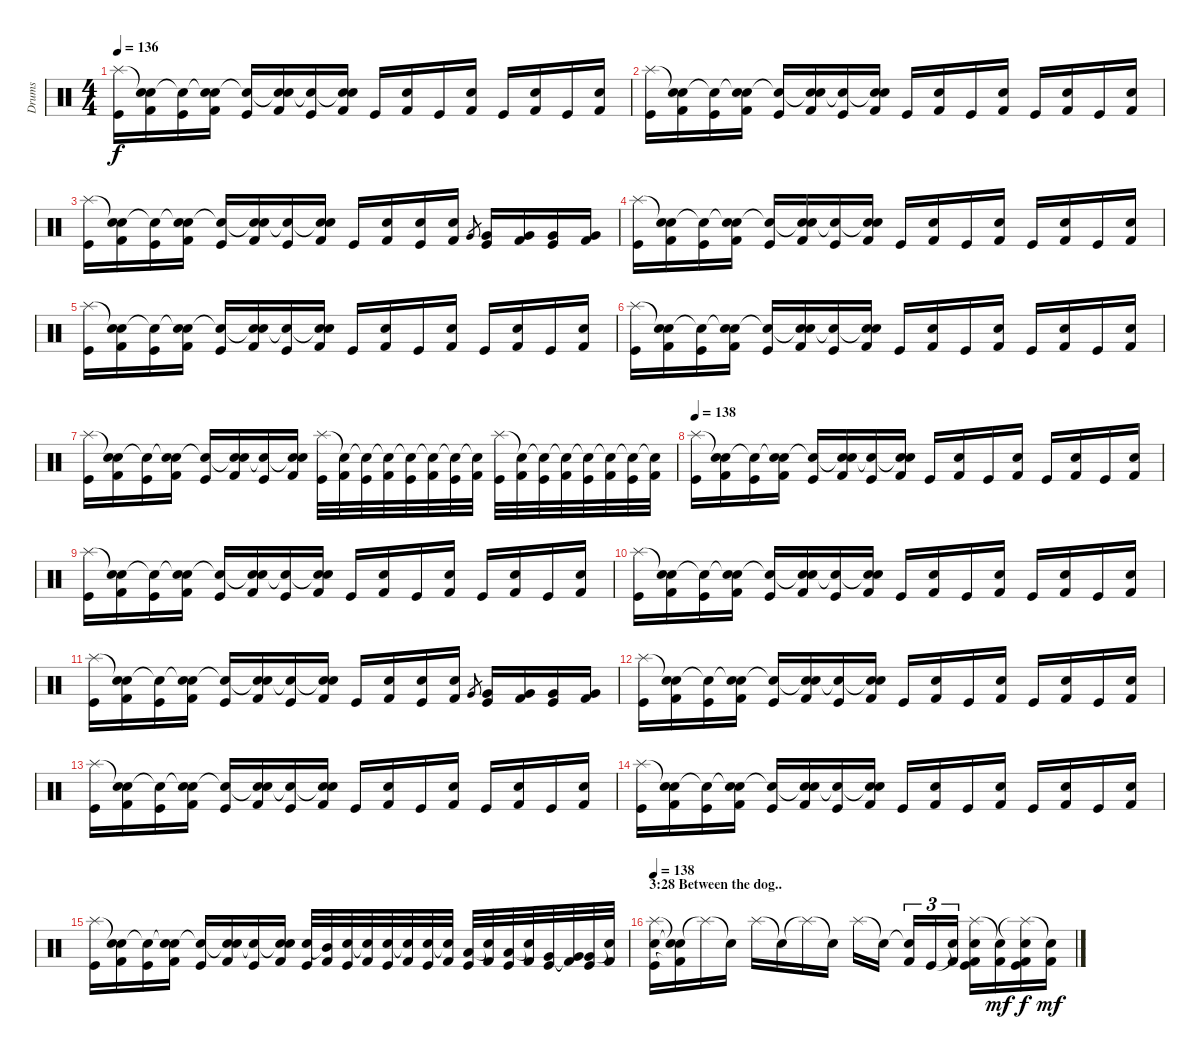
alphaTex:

\track ("Drums" "Drums") {instrument percussion}
\staff {score}
\articulation defaults
\ts (4 4)
\tempo 136
\clef neutral
\ks c
("Splash (hit)" "Kick (hit)").16{dy f} ("Snare (hit)"{t} "Snare (hit) 2" "Kick (hit) 2").16 ("Snare (hit)"{t} "Kick (hit)").16 ("Snare (hit)"{t} "Snare (hit) 2" "Kick (hit) 2").16 ("Snare (hit)"{t} "Kick (hit)").16 ("Snare (hit)"{t} "Snare (hit) 2" "Kick (hit) 2").16 ("Snare (hit)"{t} "Kick (hit)").16 ("Snare (hit)"{t} "Snare (hit) 2" "Kick (hit) 2").16 "Kick (hit)".16 ("Snare (hit) 2" "Kick (hit) 2").16 "Kick (hit)".16 ("Snare (hit) 2" "Kick (hit) 2").16 "Kick (hit)".16 ("Snare (hit) 2" "Kick (hit) 2").16 "Kick (hit)".16 ("Snare (hit) 2" "Kick (hit) 2").16 |
("Splash (hit)" "Kick (hit)").16 ("Snare (hit)"{t} "Snare (hit) 2" "Kick (hit) 2").16 ("Snare (hit)"{t} "Kick (hit)").16 ("Snare (hit)"{t} "Snare (hit) 2" "Kick (hit) 2").16 ("Snare (hit)"{t} "Kick (hit)").16 ("Snare (hit)"{t} "Snare (hit) 2" "Kick (hit) 2").16 ("Snare (hit)"{t} "Kick (hit)").16 ("Snare (hit)"{t} "Snare (hit) 2" "Kick (hit) 2").16 "Kick (hit)".16 ("Snare (hit) 2" "Kick (hit) 2").16 "Kick (hit)".16 ("Snare (hit) 2" "Kick (hit) 2").16 "Kick (hit)".16 ("Snare (hit) 2" "Kick (hit) 2").16 "Kick (hit)".16 ("Snare (hit) 2" "Kick (hit) 2").16 |
("Splash (hit)" "Kick (hit)").16 ("Snare (hit)"{t} "Snare (hit) 2" "Kick (hit) 2").16 ("Snare (hit)"{t} "Kick (hit)").16 ("Snare (hit)"{t} "Snare (hit) 2" "Kick (hit) 2").16 ("Snare (hit)"{t} "Kick (hit)").16 ("Snare (hit)"{t} "Snare (hit) 2" "Kick (hit) 2").16 ("Snare (hit)"{t} "Kick (hit)").16 ("Snare (hit)"{t} "Snare (hit) 2" "Kick (hit) 2").16 "Kick (hit)".16 ("Snare (hit) 2" "Kick (hit) 2").16 ("Snare (hit) 2" "Kick (hit)").16 ("Snare (hit) 2" "Kick (hit) 2").16 "Very Low Tom (hit)".8{gr} ("Very Low Tom (hit)" "Kick (hit)").16 ("Very Low Tom (hit)" "Kick (hit) 2").16 ("Very Low Tom (hit)" "Kick (hit)").16 ("Very Low Tom (hit)" "Kick (hit) 2").16 |
("Splash (hit)" "Kick (hit)").16 ("Snare (hit)"{t} "Snare (hit) 2" "Kick (hit) 2").16 ("Snare (hit)"{t} "Kick (hit)").16 ("Snare (hit)"{t} "Snare (hit) 2" "Kick (hit) 2").16 ("Snare (hit)"{t} "Kick (hit)").16 ("Snare (hit)"{t} "Snare (hit) 2" "Kick (hit) 2").16 ("Snare (hit)"{t} "Kick (hit)").16 ("Snare (hit)"{t} "Snare (hit) 2" "Kick (hit) 2").16 "Kick (hit)".16 ("Snare (hit) 2" "Kick (hit) 2").16 "Kick (hit)".16 ("Snare (hit) 2" "Kick (hit) 2").16 "Kick (hit)".16 ("Snare (hit) 2" "Kick (hit) 2").16 "Kick (hit)".16 ("Snare (hit) 2" "Kick (hit) 2").16 |
("Splash (hit)" "Kick (hit)").16 ("Snare (hit)"{t} "Snare (hit) 2" "Kick (hit) 2").16 ("Snare (hit)"{t} "Kick (hit)").16 ("Snare (hit)"{t} "Snare (hit) 2" "Kick (hit) 2").16 ("Snare (hit)"{t} "Kick (hit)").16 ("Snare (hit)"{t} "Snare (hit) 2" "Kick (hit) 2").16 ("Snare (hit)"{t} "Kick (hit)").16 ("Snare (hit)"{t} "Snare (hit) 2" "Kick (hit) 2").16 "Kick (hit)".16 ("Snare (hit) 2" "Kick (hit) 2").16 "Kick (hit)".16 ("Snare (hit) 2" "Kick (hit) 2").16 "Kick (hit)".16 ("Snare (hit) 2" "Kick (hit) 2").16 "Kick (hit)".16 ("Snare (hit) 2" "Kick (hit) 2").16 |
("Splash (hit)" "Kick (hit)").16 ("Snare (hit)"{t} "Snare (hit) 2" "Kick (hit) 2").16 ("Snare (hit)"{t} "Kick (hit)").16 ("Snare (hit)"{t} "Snare (hit) 2" "Kick (hit) 2").16 ("Snare (hit)"{t} "Kick (hit)").16 ("Snare (hit)"{t} "Snare (hit) 2" "Kick (hit) 2").16 ("Snare (hit)"{t} "Kick (hit)").16 ("Snare (hit)"{t} "Snare (hit) 2" "Kick (hit) 2").16 "Kick (hit)".16 ("Snare (hit) 2" "Kick (hit) 2").16 "Kick (hit)".16 ("Snare (hit) 2" "Kick (hit) 2").16 "Kick (hit)".16 ("Snare (hit) 2" "Kick (hit) 2").16 "Kick (hit)".16 ("Snare (hit) 2" "Kick (hit) 2").16 |
("Splash (hit)" "Kick (hit)").16 ("Snare (hit)"{t} "Snare (hit) 2" "Kick (hit) 2").16 ("Snare (hit)"{t} "Kick (hit)").16 ("Snare (hit)"{t} "Snare (hit) 2" "Kick (hit) 2").16 ("Snare (hit)"{t} "Kick (hit)").16 ("Snare (hit)"{t} "Snare (hit) 2" "Kick (hit) 2").16 ("Snare (hit)"{t} "Kick (hit)").16 ("Snare (hit)"{t} "Snare (hit) 2" "Kick (hit) 2").16 ("Splash (hit)" "Kick (hit)").32 ("Snare (hit)"{t} "Kick (hit) 2").32 ("Snare (hit)"{t} "Kick (hit)").32 ("Snare (hit)"{t} "Kick (hit) 2").32 ("Snare (hit)"{t} "Kick (hit)").32 ("Snare (hit)"{t} "Kick (hit) 2").32 ("Snare (hit)"{t} "Kick (hit)").32 ("Snare (hit)"{t} "Kick (hit) 2").32 ("Splash (hit)" "Kick (hit)").32 ("Snare (hit)"{t} "Kick (hit) 2").32 ("Snare (hit)"{t} "Kick (hit)").32 ("Snare (hit)"{t} "Kick (hit) 2").32 ("Snare (hit)"{t} "Kick (hit)").32 ("Snare (hit)"{t} "Kick (hit) 2").32 ("Snare (hit)"{t} "Kick (hit)").32 ("Snare (hit)"{t} "Kick (hit) 2").32 |
\tempo 138
("Splash (hit)" "Kick (hit)").16 ("Snare (hit)"{t} "Snare (hit) 2" "Kick (hit) 2").16 ("Snare (hit)"{t} "Kick (hit)").16 ("Snare (hit)"{t} "Snare (hit) 2" "Kick (hit) 2").16 ("Snare (hit)"{t} "Kick (hit)").16 ("Snare (hit)"{t} "Snare (hit) 2" "Kick (hit) 2").16 ("Snare (hit)"{t} "Kick (hit)").16 ("Snare (hit)"{t} "Snare (hit) 2" "Kick (hit) 2").16 "Kick (hit)".16 ("Snare (hit) 2" "Kick (hit) 2").16 "Kick (hit)".16 ("Snare (hit) 2" "Kick (hit) 2").16 "Kick (hit)".16 ("Snare (hit) 2" "Kick (hit) 2").16 "Kick (hit)".16 ("Snare (hit) 2" "Kick (hit) 2").16 |
("Splash (hit)" "Kick (hit)").16 ("Snare (hit)"{t} "Snare (hit) 2" "Kick (hit) 2").16 ("Snare (hit)"{t} "Kick (hit)").16 ("Snare (hit)"{t} "Snare (hit) 2" "Kick (hit) 2").16 ("Snare (hit)"{t} "Kick (hit)").16 ("Snare (hit)"{t} "Snare (hit) 2" "Kick (hit) 2").16 ("Snare (hit)"{t} "Kick (hit)").16 ("Snare (hit)"{t} "Snare (hit) 2" "Kick (hit) 2").16 "Kick (hit)".16 ("Snare (hit) 2" "Kick (hit) 2").16 "Kick (hit)".16 ("Snare (hit) 2" "Kick (hit) 2").16 "Kick (hit)".16 ("Snare (hit) 2" "Kick (hit) 2").16 "Kick (hit)".16 ("Snare (hit) 2" "Kick (hit) 2").16 |
("Splash (hit)" "Kick (hit)").16 ("Snare (hit)"{t} "Snare (hit) 2" "Kick (hit) 2").16 ("Snare (hit)"{t} "Kick (hit)").16 ("Snare (hit)"{t} "Snare (hit) 2" "Kick (hit) 2").16 ("Snare (hit)"{t} "Kick (hit)").16 ("Snare (hit)"{t} "Snare (hit) 2" "Kick (hit) 2").16 ("Snare (hit)"{t} "Kick (hit)").16 ("Snare (hit)"{t} "Snare (hit) 2" "Kick (hit) 2").16 "Kick (hit)".16 ("Snare (hit) 2" "Kick (hit) 2").16 "Kick (hit)".16 ("Snare (hit) 2" "Kick (hit) 2").16 "Kick (hit)".16 ("Snare (hit) 2" "Kick (hit) 2").16 "Kick (hit)".16 ("Snare (hit) 2" "Kick (hit) 2").16 |
("Splash (hit)" "Kick (hit)").16 ("Snare (hit)"{t} "Snare (hit) 2" "Kick (hit) 2").16 ("Snare (hit)"{t} "Kick (hit)").16 ("Snare (hit)"{t} "Snare (hit) 2" "Kick (hit) 2").16 ("Snare (hit)"{t} "Kick (hit)").16 ("Snare (hit)"{t} "Snare (hit) 2" "Kick (hit) 2").16 ("Snare (hit)"{t} "Kick (hit)").16 ("Snare (hit)"{t} "Snare (hit) 2" "Kick (hit) 2").16 "Kick (hit)".16 ("Snare (hit) 2" "Kick (hit) 2").16 ("Snare (hit) 2" "Kick (hit)").16 ("Snare (hit) 2" "Kick (hit) 2").16 "Very Low Tom (hit)".8{gr} ("Very Low Tom (hit)" "Kick (hit)").16 ("Very Low Tom (hit)" "Kick (hit) 2").16 ("Very Low Tom (hit)" "Kick (hit)").16 ("Very Low Tom (hit)" "Kick (hit) 2").16 |
("Splash (hit)" "Kick (hit)").16 ("Snare (hit)"{t} "Snare (hit) 2" "Kick (hit) 2").16 ("Snare (hit)"{t} "Kick (hit)").16 ("Snare (hit)"{t} "Snare (hit) 2" "Kick (hit) 2").16 ("Snare (hit)"{t} "Kick (hit)").16 ("Snare (hit)"{t} "Snare (hit) 2" "Kick (hit) 2").16 ("Snare (hit)"{t} "Kick (hit)").16 ("Snare (hit)"{t} "Snare (hit) 2" "Kick (hit) 2").16 "Kick (hit)".16 ("Snare (hit) 2" "Kick (hit) 2").16 "Kick (hit)".16 ("Snare (hit) 2" "Kick (hit) 2").16 "Kick (hit)".16 ("Snare (hit) 2" "Kick (hit) 2").16 "Kick (hit)".16 ("Snare (hit) 2" "Kick (hit) 2").16 |
("Splash (hit)" "Kick (hit)").16 ("Snare (hit)"{t} "Snare (hit) 2" "Kick (hit) 2").16 ("Snare (hit)"{t} "Kick (hit)").16 ("Snare (hit)"{t} "Snare (hit) 2" "Kick (hit) 2").16 ("Snare (hit)"{t} "Kick (hit)").16 ("Snare (hit)"{t} "Snare (hit) 2" "Kick (hit) 2").16 ("Snare (hit)"{t} "Kick (hit)").16 ("Snare (hit)"{t} "Snare (hit) 2" "Kick (hit) 2").16 "Kick (hit)".16 ("Snare (hit) 2" "Kick (hit) 2").16 "Kick (hit)".16 ("Snare (hit) 2" "Kick (hit) 2").16 "Kick (hit)".16 ("Snare (hit) 2" "Kick (hit) 2").16 "Kick (hit)".16 ("Snare (hit) 2" "Kick (hit) 2").16 |
("Splash (hit)" "Kick (hit)").16 ("Snare (hit)"{t} "Snare (hit) 2" "Kick (hit) 2").16 ("Snare (hit)"{t} "Kick (hit)").16 ("Snare (hit)"{t} "Snare (hit) 2" "Kick (hit) 2").16 ("Snare (hit)"{t} "Kick (hit)").16 ("Snare (hit)"{t} "Snare (hit) 2" "Kick (hit) 2").16 ("Snare (hit)"{t} "Kick (hit)").16 ("Snare (hit)"{t} "Snare (hit) 2" "Kick (hit) 2").16 "Kick (hit)".16 ("Snare (hit) 2" "Kick (hit) 2").16 "Kick (hit)".16 ("Snare (hit) 2" "Kick (hit) 2").16 "Kick (hit)".16 ("Snare (hit) 2" "Kick (hit) 2").16 "Kick (hit)".16 ("Snare (hit) 2" "Kick (hit) 2").16 |
("Splash (hit)" "Kick (hit)").16 ("Snare (hit)"{t} "Snare (hit) 2" "Kick (hit) 2").16 ("Snare (hit)"{t} "Kick (hit)").16 ("Snare (hit)"{t} "Snare (hit) 2" "Kick (hit) 2").16 ("Snare (hit)"{t} "Kick (hit)").16 ("Snare (hit)"{t} "Snare (hit) 2" "Kick (hit) 2").16 ("Snare (hit)"{t} "Kick (hit)").16 ("Snare (hit)"{t} "Snare (hit) 2" "Kick (hit) 2").16 ("Snare (hit) 2" "Kick (hit)").32 ("Mid Tom (hit)"{t} "Kick (hit) 2").32 ("Snare (hit) 2" "Kick (hit)").32 ("Snare (hit)"{t} "Kick (hit) 2").32 ("Snare (hit) 2" "Kick (hit)").32 ("Snare (hit)"{t} "Kick (hit) 2").32 ("Snare (hit) 2" "Kick (hit)").32 ("Snare (hit)"{t} "Kick (hit) 2").32 ("Low Tom (hit)" "Kick (hit)").32 ("Snare (hit)"{t} "Kick (hit) 2").32 ("Low Tom (hit)" "Kick (hit)").32 ("Snare (hit)"{t} "Kick (hit) 2").32 ("Very Low Tom (hit)" "Kick (hit)").32 ("Very Low Tom (hit)"{t} "Kick (hit) 2").32 ("Very Low Tom (hit)" "Kick (hit)").32 ("Snare (hit)"{t} "Kick (hit) 2").32 |
\section ("" "3:28 Between the dog..")
\tempo 138
("Splash (hit)" "Snare (hit) 2" "Kick (hit)").16 ("Snare (hit)"{t} "Snare (hit)"{t} "Kick (hit) 2"{t}).16 "Splash (hit)"{t}.16 "Snare (hit)"{t}.16 "Splash (hit)".16 "Snare (hit)"{t}.16 "Splash (hit)"{t}.16 "Snare (hit)"{t}.16 "Splash (hit)".16 "Snare (hit)"{t}.16 ("Snare (hit)"{t} "Kick (hit) 2").16{tu (3 2)} "Kick (hit)".16{tu (3 2)} ("Snare (hit)"{t} "Kick (hit) 2").16{tu (3 2)} ("Splash (hit)" "Snare (hit) 2" "Kick (hit) 2" "Kick (hit)").16 ("Snare (hit)"{t} "Kick (hit) 2").16{dy mf} ("Splash (hit)"{t} "Snare (hit) 2" "Kick (hit) 2" "Kick (hit)").16{dy f} ("Snare (hit)"{t} "Kick (hit) 2").16{dy mf}
